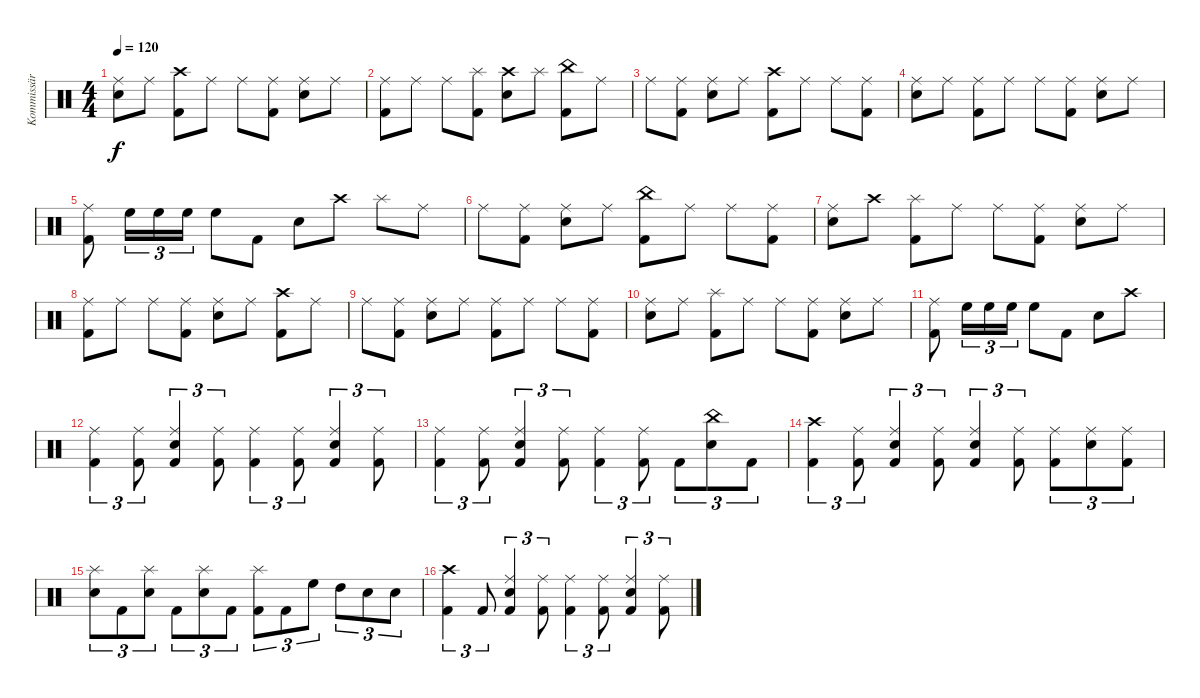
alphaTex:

\track ("Kommissär Ogrim" "Kommissär ") {instrument percussion}
\staff {score}
\articulation defaults
\ts (4 4)
\tempo 120
\clef neutral
\ks c
("Snare (hit) 2" "Ride (middle)").8{dy f} "Ride (middle)".8 ("Crash high (hit)" "Kick (hit) 2").8 "Ride (middle)".8 "Ride (middle)".8 ("Ride (middle)" "Kick (hit) 2").8 ("Snare (hit) 2" "Ride (middle)").8 "Ride (middle)".8 |
("Ride (middle)" "Kick (hit) 2").8 "Ride (middle)".8 "Ride (middle)".8 ("Splash (hit)" "Kick (hit) 2").8 ("Snare (hit) 2" "Crash high (hit)").8 "Splash (hit)".8 ("China (hit)" "Kick (hit) 2").8 "Ride (middle)".8 |
"Ride (middle)".8 ("Ride (middle)" "Kick (hit) 2").8 ("Snare (hit) 2" "Ride (middle)").8 "Ride (middle)".8 ("Crash high (hit)" "Kick (hit) 2").8 "Ride (middle)".8 "Ride (middle)".8 ("Ride (middle)" "Kick (hit) 2").8 |
("Snare (hit) 2" "Ride (middle)").8 "Ride (middle)".8 ("Ride (middle)" "Kick (hit) 2").8 "Ride (middle)".8 "Ride (middle)".8 ("Ride (middle)" "Kick (hit) 2").8 ("Snare (hit) 2" "Ride (middle)").8 "Ride (middle)".8 |
("Ride (middle)" "Kick (hit) 2").8 "High Floor Tom (hit)".16{tu (3 2)} "High Floor Tom (hit)".16{tu (3 2)} "High Floor Tom (hit)".16{tu (3 2)} "High Floor Tom (hit)".8 "Kick (hit) 2".8 "Snare (hit) 2".8 "Crash high (hit)".8 "Splash (hit)".8 "Ride (middle)".8 |
"Ride (middle)".8 ("Ride (middle)" "Kick (hit) 2").8 ("Snare (hit) 2" "Ride (middle)").8 "Ride (middle)".8 ("China (hit)" "Kick (hit) 2").8 "Ride (middle)".8 "Ride (middle)".8 ("Ride (middle)" "Kick (hit) 2").8 |
("Snare (hit) 2" "Ride (middle)").8 "Crash high (hit)".8 ("Splash (hit)" "Kick (hit) 2").8 "Ride (middle)".8 "Ride (middle)".8 ("Ride (middle)" "Kick (hit) 2").8 ("Snare (hit) 2" "Ride (middle)").8 "Ride (middle)".8 |
("Ride (middle)" "Kick (hit) 2").8 "Ride (middle)".8 "Ride (middle)".8 ("Ride (middle)" "Kick (hit) 2").8 ("Snare (hit) 2" "Ride (middle)").8 "Ride (middle)".8 ("Crash high (hit)" "Kick (hit) 2").8 "Ride (middle)".8 |
"Ride (middle)".8 ("Ride (middle)" "Kick (hit) 2").8 ("Snare (hit) 2" "Ride (middle)").8 "Ride (middle)".8 ("Ride (middle)" "Kick (hit) 2").8 "Ride (middle)".8 "Ride (middle)".8 ("Ride (middle)" "Kick (hit) 2").8 |
("Snare (hit) 2" "Ride (middle)").8 "Ride (middle)".8 ("Splash (hit)" "Kick (hit) 2").8 "Ride (middle)".8 "Ride (middle)".8 ("Ride (middle)" "Kick (hit) 2").8 ("Snare (hit) 2" "Ride (middle)").8 "Ride (middle)".8 |
("Ride (middle)" "Kick (hit) 2").8 "High Floor Tom (hit)".16{tu (3 2)} "High Floor Tom (hit)".16{tu (3 2)} "High Floor Tom (hit)".16{tu (3 2)} "High Floor Tom (hit)".8 "Kick (hit) 2".8 "Snare (hit) 2".8 "Crash high (hit)".8 |
("Ride (middle)" "Kick (hit) 2").4{tu (3 2)} ("Ride (middle)" "Kick (hit) 2").8{tu (3 2)} ("Snare (hit) 2" "Ride (middle)" "Kick (hit) 2").4{tu (3 2)} ("Ride (middle)" "Kick (hit) 2").8{tu (3 2)} ("Ride (middle)" "Kick (hit) 2").4{tu (3 2)} ("Ride (middle)" "Kick (hit) 2").8{tu (3 2)} ("Snare (hit) 2" "Ride (middle)" "Kick (hit) 2").4{tu (3 2)} ("Ride (middle)" "Kick (hit) 2").8{tu (3 2)} |
("Ride (middle)" "Kick (hit) 2").4{tu (3 2)} ("Ride (middle)" "Kick (hit) 2").8{tu (3 2)} ("Snare (hit) 2" "Ride (middle)" "Kick (hit) 2").4{tu (3 2)} ("Ride (middle)" "Kick (hit) 2").8{tu (3 2)} ("Ride (middle)" "Kick (hit) 2").4{tu (3 2)} ("Ride (middle)" "Kick (hit) 2").8{tu (3 2)} "Kick (hit) 2".8{tu (3 2)} ("Snare (hit) 2" "China (hit)").8{tu (3 2)} "Kick (hit) 2".8{tu (3 2)} |
("Crash high (hit)" "Kick (hit) 2").4{tu (3 2)} ("Ride (middle)" "Kick (hit) 2").8{tu (3 2)} ("Snare (hit) 2" "Ride (middle)" "Kick (hit) 2").4{tu (3 2)} ("Ride (middle)" "Kick (hit) 2").8{tu (3 2)} ("Snare (hit) 2" "Ride (middle)" "Kick (hit) 2").4{tu (3 2)} ("Ride (middle)" "Kick (hit) 2").8{tu (3 2)} ("Ride (middle)" "Kick (hit) 2").8{tu (3 2)} ("Snare (hit) 2" "Ride (middle)").8{tu (3 2)} ("Ride (middle)" "Kick (hit) 2").8{tu (3 2)} |
("Snare (hit) 2" "Splash (hit)").8{tu (3 2)} "Kick (hit) 2".8{tu (3 2)} ("Snare (hit) 2" "Splash (hit)").8{tu (3 2)} "Kick (hit) 2".8{tu (3 2)} ("Snare (hit) 2" "Splash (hit)").8{tu (3 2)} "Kick (hit) 2".8{tu (3 2)} ("Splash (hit)" "Kick (hit) 2").8{tu (3 2)} "Kick (hit) 2".8{tu (3 2)} "High Floor Tom (hit)".8{tu (3 2)} "High Tom (hit)".8{tu (3 2)} "Snare (hit) 2".8{tu (3 2)} "Snare (hit) 2".8{tu (3 2)} |
("Crash high (hit)" "Kick (hit) 2").4{tu (3 2)} "Kick (hit) 2".8{tu (3 2)} ("Snare (hit) 2" "Ride (middle)" "Kick (hit) 2").4{tu (3 2)} ("Ride (middle)" "Kick (hit) 2").8{tu (3 2)} ("Ride (middle)" "Kick (hit) 2").4{tu (3 2)} ("Ride (middle)" "Kick (hit) 2").8{tu (3 2)} ("Snare (hit) 2" "Ride (middle)" "Kick (hit) 2").4{tu (3 2)} ("Ride (middle)" "Kick (hit) 2").8{tu (3 2)}
